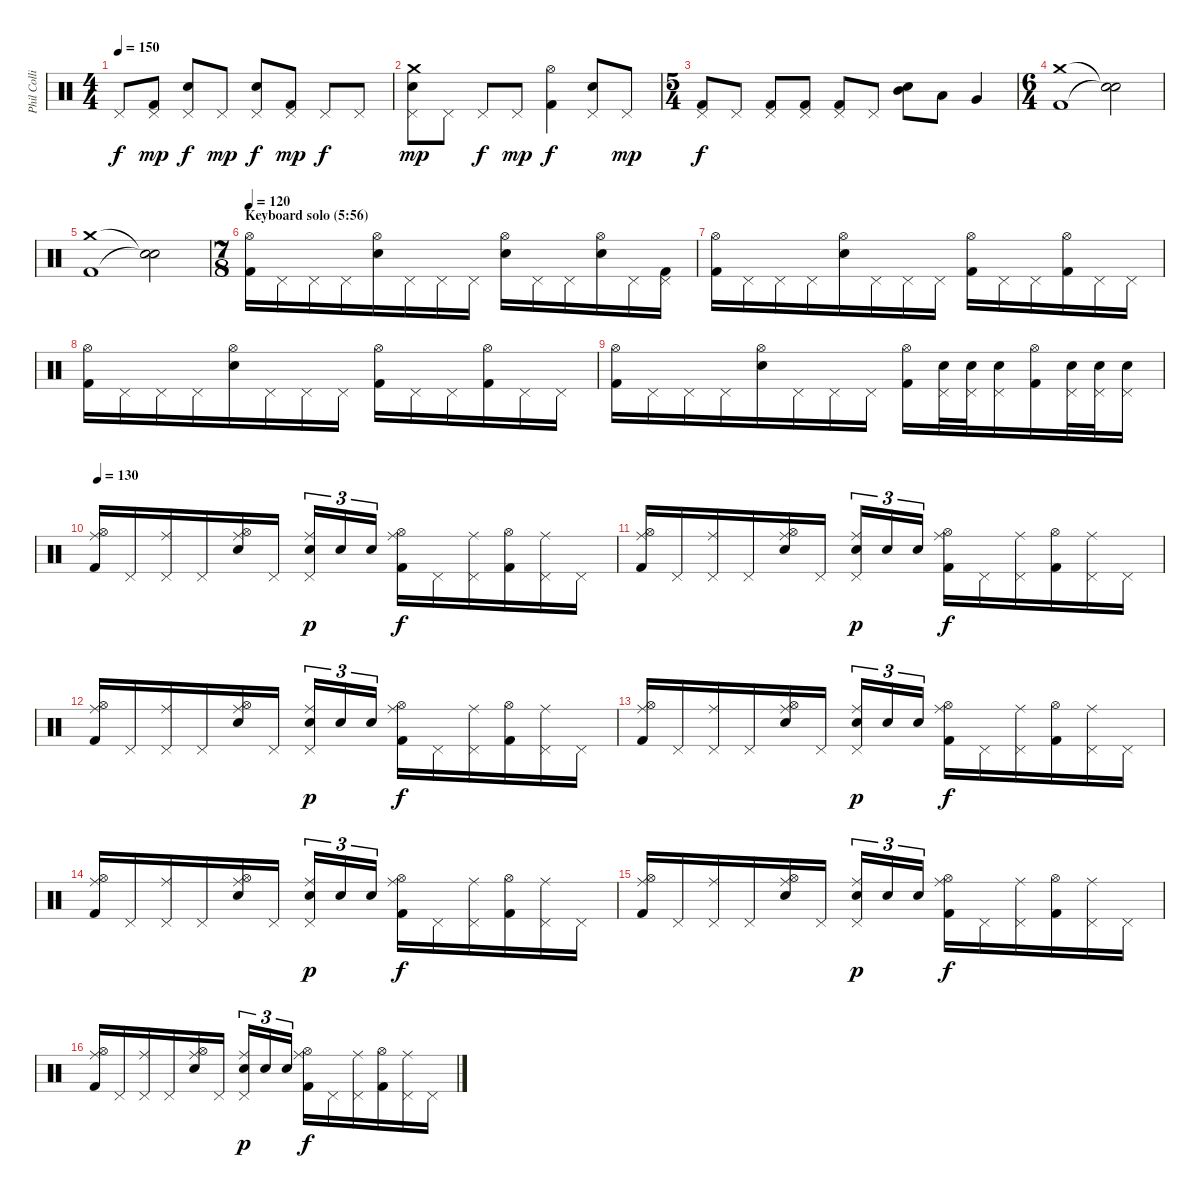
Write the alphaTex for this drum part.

\track ("Phil Collins (drums)" "Phil Colli") {instrument percussion}
\staff {score}
\articulation defaults
\ts (4 4)
\tempo 150
\clef neutral
\ks c "Pedal Hi-Hat (hit)".8{dy f}
("Pedal Hi-Hat (hit)" "Kick (hit) 2").8{dy mp} ("Pedal Hi-Hat (hit)" "Electric Snare (hit)").8{dy f} "Pedal Hi-Hat (hit)".8{dy mp} ("Pedal Hi-Hat (hit)" "Electric Snare (hit)").8{dy f} ("Pedal Hi-Hat (hit)" "Kick (hit) 2").8{dy mp} "Pedal Hi-Hat (hit)".8{dy f} "Pedal Hi-Hat (hit)".8 |
("Crash medium (hit)" "Pedal Hi-Hat (hit)" "Electric Snare (hit)").8{dy mp} "Pedal Hi-Hat (hit)".8 "Pedal Hi-Hat (hit)".8{dy f} "Pedal Hi-Hat (hit)".8{dy mp} ("Hi-Hat (open)" "Kick (hit) 2").4{dy f} ("Pedal Hi-Hat (hit)" "Electric Snare (hit)").8 "Pedal Hi-Hat (hit)".8{dy mp} |
\ts (5 4)
("Pedal Hi-Hat (hit)" "Kick (hit) 2").8{dy f} "Pedal Hi-Hat (hit)".8 ("Pedal Hi-Hat (hit)" "Kick (hit) 2").8 ("Pedal Hi-Hat (hit)" "Kick (hit) 2").8 ("Pedal Hi-Hat (hit)" "Kick (hit) 2").8 "Pedal Hi-Hat (hit)".8 ("Mid Tom (hit)" "Electric Snare (hit)").8 "Low Tom (hit)".8 "Very Low Tom (hit)".4 |
\ts (6 4)
("Crash medium (hit)" "Kick (hit) 2").1 ("Snare (hit)"{t} "Snare (hit)"{t}).2 |
("Crash medium (hit)" "Kick (hit) 2").1 ("Snare (hit)"{t} "Snare (hit)"{t}).2 |
\ts (7 8)
\section ("" "Keyboard solo (5:56)")
\tempo 120
("Hi-Hat (open)" "Kick (hit) 2").16 "Pedal Hi-Hat (hit)".16 "Pedal Hi-Hat (hit)".16 "Pedal Hi-Hat (hit)".16 ("Hi-Hat (open)" "Electric Snare (hit)").16 "Pedal Hi-Hat (hit)".16 "Pedal Hi-Hat (hit)".16 "Pedal Hi-Hat (hit)".16 ("Hi-Hat (open)" "Electric Snare (hit)").16 "Pedal Hi-Hat (hit)".16 "Pedal Hi-Hat (hit)".16 ("Hi-Hat (open)" "Electric Snare (hit)").16 "Pedal Hi-Hat (hit)".16 ("Pedal Hi-Hat (hit)" "Kick (hit) 2").16 |
("Hi-Hat (open)" "Kick (hit) 2").16 "Pedal Hi-Hat (hit)".16 "Pedal Hi-Hat (hit)".16 "Pedal Hi-Hat (hit)".16 ("Hi-Hat (open)" "Electric Snare (hit)").16 "Pedal Hi-Hat (hit)".16 "Pedal Hi-Hat (hit)".16 "Pedal Hi-Hat (hit)".16 ("Hi-Hat (open)" "Kick (hit) 2").16 "Pedal Hi-Hat (hit)".16 "Pedal Hi-Hat (hit)".16 ("Hi-Hat (open)" "Kick (hit) 2").16 "Pedal Hi-Hat (hit)".16 "Pedal Hi-Hat (hit)".16 |
("Hi-Hat (open)" "Kick (hit) 2").16 "Pedal Hi-Hat (hit)".16 "Pedal Hi-Hat (hit)".16 "Pedal Hi-Hat (hit)".16 ("Hi-Hat (open)" "Electric Snare (hit)").16 "Pedal Hi-Hat (hit)".16 "Pedal Hi-Hat (hit)".16 "Pedal Hi-Hat (hit)".16 ("Hi-Hat (open)" "Kick (hit) 2").16 "Pedal Hi-Hat (hit)".16 "Pedal Hi-Hat (hit)".16 ("Hi-Hat (open)" "Kick (hit) 2").16 "Pedal Hi-Hat (hit)".16 "Pedal Hi-Hat (hit)".16 |
("Hi-Hat (open)" "Kick (hit) 2").16 "Pedal Hi-Hat (hit)".16 "Pedal Hi-Hat (hit)".16 "Pedal Hi-Hat (hit)".16 ("Hi-Hat (open)" "Electric Snare (hit)").16 "Pedal Hi-Hat (hit)".16 "Pedal Hi-Hat (hit)".16 "Pedal Hi-Hat (hit)".16 ("Hi-Hat (open)" "Kick (hit) 2").16 ("Pedal Hi-Hat (hit)" "Electric Snare (hit)").32 ("Pedal Hi-Hat (hit)" "Electric Snare (hit)").32 ("Pedal Hi-Hat (hit)" "Electric Snare (hit)").16 ("Hi-Hat (open)" "Kick (hit) 2").16 ("Pedal Hi-Hat (hit)" "Electric Snare (hit)").32 ("Pedal Hi-Hat (hit)" "Electric Snare (hit)").32 ("Pedal Hi-Hat (hit)" "Electric Snare (hit)").16 |
\tempo 130
("Ride (middle)" "Hi-Hat (open)" "Kick (hit) 2").16 "Pedal Hi-Hat (hit)".16 ("Ride (middle)" "Pedal Hi-Hat (hit)").16 "Pedal Hi-Hat (hit)".16 ("Ride (middle)" "Hi-Hat (open)" "Electric Snare (hit)").16 "Pedal Hi-Hat (hit)".16 ("Ride (middle)" "Pedal Hi-Hat (hit)" "Electric Snare (hit)").16{tu (3 2) dy p} "Electric Snare (hit)".16{tu (3 2)} "Electric Snare (hit)".16{tu (3 2)} ("Ride (middle)" "Hi-Hat (open)" "Kick (hit) 2").16{dy f} "Pedal Hi-Hat (hit)".16 ("Ride (middle)" "Pedal Hi-Hat (hit)").16 ("Hi-Hat (open)" "Kick (hit) 2").16 ("Ride (middle)" "Pedal Hi-Hat (hit)").16 "Pedal Hi-Hat (hit)".16 |
("Ride (middle)" "Hi-Hat (open)" "Kick (hit) 2").16 "Pedal Hi-Hat (hit)".16 ("Ride (middle)" "Pedal Hi-Hat (hit)").16 "Pedal Hi-Hat (hit)".16 ("Ride (middle)" "Hi-Hat (open)" "Electric Snare (hit)").16 "Pedal Hi-Hat (hit)".16 ("Ride (middle)" "Pedal Hi-Hat (hit)" "Electric Snare (hit)").16{tu (3 2) dy p} "Electric Snare (hit)".16{tu (3 2)} "Electric Snare (hit)".16{tu (3 2)} ("Ride (middle)" "Hi-Hat (open)" "Kick (hit) 2").16{dy f} "Pedal Hi-Hat (hit)".16 ("Ride (middle)" "Pedal Hi-Hat (hit)").16 ("Hi-Hat (open)" "Kick (hit) 2").16 ("Ride (middle)" "Pedal Hi-Hat (hit)").16 "Pedal Hi-Hat (hit)".16 |
("Ride (middle)" "Hi-Hat (open)" "Kick (hit) 2").16 "Pedal Hi-Hat (hit)".16 ("Ride (middle)" "Pedal Hi-Hat (hit)").16 "Pedal Hi-Hat (hit)".16 ("Ride (middle)" "Hi-Hat (open)" "Electric Snare (hit)").16 "Pedal Hi-Hat (hit)".16 ("Ride (middle)" "Pedal Hi-Hat (hit)" "Electric Snare (hit)").16{tu (3 2) dy p} "Electric Snare (hit)".16{tu (3 2)} "Electric Snare (hit)".16{tu (3 2)} ("Ride (middle)" "Hi-Hat (open)" "Kick (hit) 2").16{dy f} "Pedal Hi-Hat (hit)".16 ("Ride (middle)" "Pedal Hi-Hat (hit)").16 ("Hi-Hat (open)" "Kick (hit) 2").16 ("Ride (middle)" "Pedal Hi-Hat (hit)").16 "Pedal Hi-Hat (hit)".16 |
("Ride (middle)" "Hi-Hat (open)" "Kick (hit) 2").16 "Pedal Hi-Hat (hit)".16 ("Ride (middle)" "Pedal Hi-Hat (hit)").16 "Pedal Hi-Hat (hit)".16 ("Ride (middle)" "Hi-Hat (open)" "Electric Snare (hit)").16 "Pedal Hi-Hat (hit)".16 ("Ride (middle)" "Pedal Hi-Hat (hit)" "Electric Snare (hit)").16{tu (3 2) dy p} "Electric Snare (hit)".16{tu (3 2)} "Electric Snare (hit)".16{tu (3 2)} ("Ride (middle)" "Hi-Hat (open)" "Kick (hit) 2").16{dy f} "Pedal Hi-Hat (hit)".16 ("Ride (middle)" "Pedal Hi-Hat (hit)").16 ("Hi-Hat (open)" "Kick (hit) 2").16 ("Ride (middle)" "Pedal Hi-Hat (hit)").16 "Pedal Hi-Hat (hit)".16 |
("Ride (middle)" "Hi-Hat (open)" "Kick (hit) 2").16 "Pedal Hi-Hat (hit)".16 ("Ride (middle)" "Pedal Hi-Hat (hit)").16 "Pedal Hi-Hat (hit)".16 ("Ride (middle)" "Hi-Hat (open)" "Electric Snare (hit)").16 "Pedal Hi-Hat (hit)".16 ("Ride (middle)" "Pedal Hi-Hat (hit)" "Electric Snare (hit)").16{tu (3 2) dy p} "Electric Snare (hit)".16{tu (3 2)} "Electric Snare (hit)".16{tu (3 2)} ("Ride (middle)" "Hi-Hat (open)" "Kick (hit) 2").16{dy f} "Pedal Hi-Hat (hit)".16 ("Ride (middle)" "Pedal Hi-Hat (hit)").16 ("Hi-Hat (open)" "Kick (hit) 2").16 ("Ride (middle)" "Pedal Hi-Hat (hit)").16 "Pedal Hi-Hat (hit)".16 |
("Ride (middle)" "Hi-Hat (open)" "Kick (hit) 2").16 "Pedal Hi-Hat (hit)".16 ("Ride (middle)" "Pedal Hi-Hat (hit)").16 "Pedal Hi-Hat (hit)".16 ("Ride (middle)" "Hi-Hat (open)" "Electric Snare (hit)").16 "Pedal Hi-Hat (hit)".16 ("Ride (middle)" "Pedal Hi-Hat (hit)" "Electric Snare (hit)").16{tu (3 2) dy p} "Electric Snare (hit)".16{tu (3 2)} "Electric Snare (hit)".16{tu (3 2)} ("Ride (middle)" "Hi-Hat (open)" "Kick (hit) 2").16{dy f} "Pedal Hi-Hat (hit)".16 ("Ride (middle)" "Pedal Hi-Hat (hit)").16 ("Hi-Hat (open)" "Kick (hit) 2").16 ("Ride (middle)" "Pedal Hi-Hat (hit)").16 "Pedal Hi-Hat (hit)".16 |
("Ride (middle)" "Hi-Hat (open)" "Kick (hit) 2").16 "Pedal Hi-Hat (hit)".16 ("Ride (middle)" "Pedal Hi-Hat (hit)").16 "Pedal Hi-Hat (hit)".16 ("Ride (middle)" "Hi-Hat (open)" "Electric Snare (hit)").16 "Pedal Hi-Hat (hit)".16 ("Ride (middle)" "Pedal Hi-Hat (hit)" "Electric Snare (hit)").16{tu (3 2) dy p} "Electric Snare (hit)".16{tu (3 2)} "Electric Snare (hit)".16{tu (3 2)} ("Ride (middle)" "Hi-Hat (open)" "Kick (hit) 2").16{dy f} "Pedal Hi-Hat (hit)".16 ("Ride (middle)" "Pedal Hi-Hat (hit)").16 ("Hi-Hat (open)" "Kick (hit) 2").16 ("Ride (middle)" "Pedal Hi-Hat (hit)").16 "Pedal Hi-Hat (hit)".16
